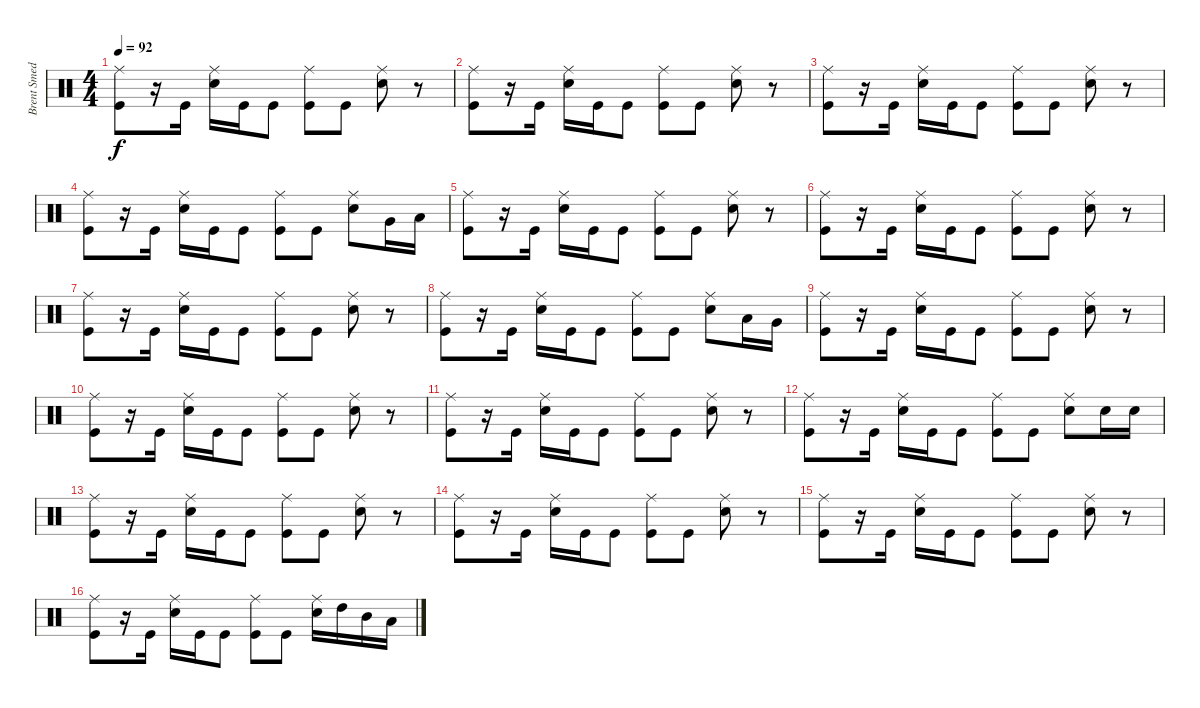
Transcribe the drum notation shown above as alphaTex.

\track ("Brent Smedley" "Brent Smed") {instrument percussion}
\staff {score}
\articulation defaults
\ts (4 4)
\tempo 92
\clef neutral
\ks c
("Ride (middle)" "Kick (hit)").8{dy f} r.16 "Kick (hit)".16 ("Ride (middle)" "Electric Snare (hit)").16 "Kick (hit)".16 "Kick (hit)".8 ("Ride (middle)" "Kick (hit)").8 "Kick (hit)".8 ("Ride (middle)" "Electric Snare (hit)").8 r.8 |
("Ride (middle)" "Kick (hit)").8 r.16 "Kick (hit)".16 ("Ride (middle)" "Electric Snare (hit)").16 "Kick (hit)".16 "Kick (hit)".8 ("Ride (middle)" "Kick (hit)").8 "Kick (hit)".8 ("Ride (middle)" "Electric Snare (hit)").8 r.8 |
("Ride (middle)" "Kick (hit)").8 r.16 "Kick (hit)".16 ("Ride (middle)" "Electric Snare (hit)").16 "Kick (hit)".16 "Kick (hit)".8 ("Ride (middle)" "Kick (hit)").8 "Kick (hit)".8 ("Ride (middle)" "Electric Snare (hit)").8 r.8 |
("Ride (middle)" "Kick (hit)").8 r.16 "Kick (hit)".16 ("Ride (middle)" "Electric Snare (hit)").16 "Kick (hit)".16 "Kick (hit)".8 ("Ride (middle)" "Kick (hit)").8 "Kick (hit)".8 ("Ride (middle)" "Electric Snare (hit)").8 "Very Low Tom (hit)".16 "Low Floor Tom (hit)".16 |
("Ride (middle)" "Kick (hit)").8 r.16 "Kick (hit)".16 ("Ride (middle)" "Electric Snare (hit)").16 "Kick (hit)".16 "Kick (hit)".8 ("Ride (middle)" "Kick (hit)").8 "Kick (hit)".8 ("Ride (middle)" "Electric Snare (hit)").8 r.8 |
("Ride (middle)" "Kick (hit)").8 r.16 "Kick (hit)".16 ("Ride (middle)" "Electric Snare (hit)").16 "Kick (hit)".16 "Kick (hit)".8 ("Ride (middle)" "Kick (hit)").8 "Kick (hit)".8 ("Ride (middle)" "Electric Snare (hit)").8 r.8 |
("Ride (middle)" "Kick (hit)").8 r.16 "Kick (hit)".16 ("Ride (middle)" "Electric Snare (hit)").16 "Kick (hit)".16 "Kick (hit)".8 ("Ride (middle)" "Kick (hit)").8 "Kick (hit)".8 ("Ride (middle)" "Electric Snare (hit)").8 r.8 |
("Ride (middle)" "Kick (hit)").8 r.16 "Kick (hit)".16 ("Ride (middle)" "Electric Snare (hit)").16 "Kick (hit)".16 "Kick (hit)".8 ("Ride (middle)" "Kick (hit)").8 "Kick (hit)".8 ("Ride (middle)" "Electric Snare (hit)").8 "Low Tom (hit)".16 "Very Low Tom (hit)".16 |
("Ride (middle)" "Kick (hit)").8 r.16 "Kick (hit)".16 ("Ride (middle)" "Electric Snare (hit)").16 "Kick (hit)".16 "Kick (hit)".8 ("Ride (middle)" "Kick (hit)").8 "Kick (hit)".8 ("Ride (middle)" "Electric Snare (hit)").8 r.8 |
("Ride (middle)" "Kick (hit)").8 r.16 "Kick (hit)".16 ("Ride (middle)" "Electric Snare (hit)").16 "Kick (hit)".16 "Kick (hit)".8 ("Ride (middle)" "Kick (hit)").8 "Kick (hit)".8 ("Ride (middle)" "Electric Snare (hit)").8 r.8 |
("Ride (middle)" "Kick (hit)").8 r.16 "Kick (hit)".16 ("Ride (middle)" "Electric Snare (hit)").16 "Kick (hit)".16 "Kick (hit)".8 ("Ride (middle)" "Kick (hit)").8 "Kick (hit)".8 ("Ride (middle)" "Electric Snare (hit)").8 r.8 |
("Ride (middle)" "Kick (hit)").8 r.16 "Kick (hit)".16 ("Ride (middle)" "Electric Snare (hit)").16 "Kick (hit)".16 "Kick (hit)".8 ("Ride (middle)" "Kick (hit)").8 "Kick (hit)".8 ("Ride (middle)" "Electric Snare (hit)").8 "Electric Snare (hit)".16 "Electric Snare (hit)".16 |
("Ride (middle)" "Kick (hit)").8 r.16 "Kick (hit)".16 ("Ride (middle)" "Electric Snare (hit)").16 "Kick (hit)".16 "Kick (hit)".8 ("Ride (middle)" "Kick (hit)").8 "Kick (hit)".8 ("Ride (middle)" "Electric Snare (hit)").8 r.8 |
("Ride (middle)" "Kick (hit)").8 r.16 "Kick (hit)".16 ("Ride (middle)" "Electric Snare (hit)").16 "Kick (hit)".16 "Kick (hit)".8 ("Ride (middle)" "Kick (hit)").8 "Kick (hit)".8 ("Ride (middle)" "Electric Snare (hit)").8 r.8 |
("Ride (middle)" "Kick (hit)").8 r.16 "Kick (hit)".16 ("Ride (middle)" "Electric Snare (hit)").16 "Kick (hit)".16 "Kick (hit)".8 ("Ride (middle)" "Kick (hit)").8 "Kick (hit)".8 ("Ride (middle)" "Electric Snare (hit)").8 r.8 |
("Ride (middle)" "Kick (hit)").8 r.16 "Kick (hit)".16 ("Ride (middle)" "Electric Snare (hit)").16 "Kick (hit)".16 "Kick (hit)".8 ("Ride (middle)" "Kick (hit)").8 "Kick (hit)".8 ("Ride (middle)" "Electric Snare (hit)").16 "High Tom (hit)".16 "Mid Tom (hit)".16 "Low Tom (hit)".16
